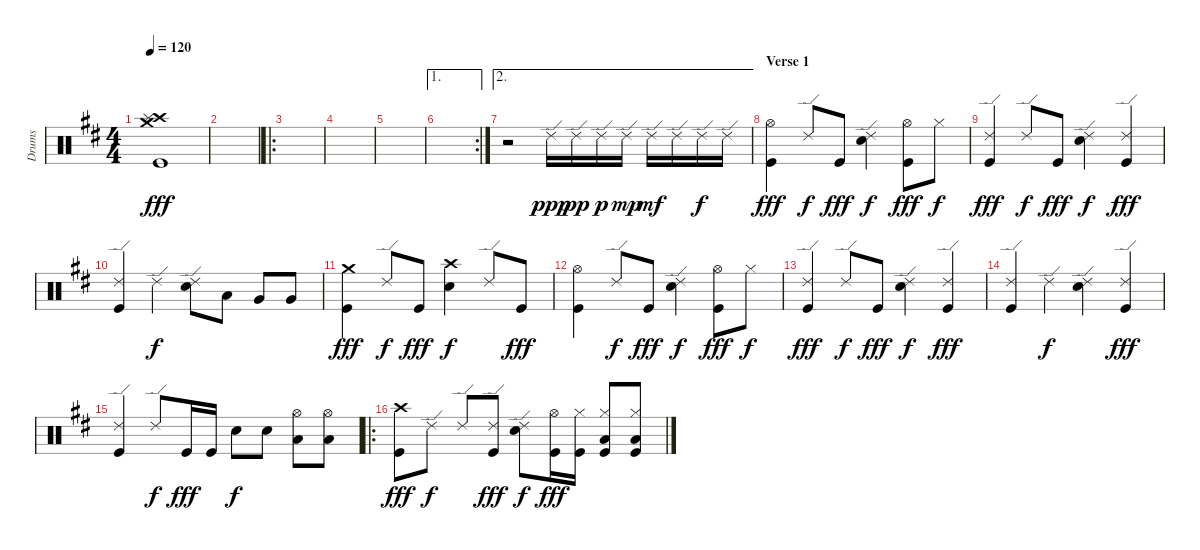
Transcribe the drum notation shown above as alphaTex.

\track ("Drums" "Drums") {instrument percussion}
\staff {score}
\articulation defaults
\ts (4 4)
\tempo 120
\clef neutral
\ks d
("Crash high (hit)" "Crash medium (hit)" "Splash (hit)" "Kick (hit)").1{dy fff} |
|
\ro
|
|
|
\ae 1
\rc 2
|
\ae 2
r.2 "Ride (edge) 2".16{dy ppp} "Ride (edge) 2".16{dy pp} "Ride (edge) 2".16{dy p} "Ride (edge) 2".16{dy mp} "Ride (edge) 2".16{dy mf} "Ride (edge) 2".16 "Ride (edge) 2".16{dy f} "Ride (edge) 2".16 |
\section ("" "Verse 1")
("Hi-Hat (open)" "Kick (hit)").4{dy fff} "Ride (edge) 2".8{dy f} "Kick (hit)".8{dy fff} ("Ride (edge) 2" "Snare (hit) 2").4{dy f} ("Hi-Hat (open)" "Kick (hit)").8{dy fff} "Hi-Hat (closed)".8{dy f} |
("Ride (edge) 2" "Kick (hit)").4{dy fff} "Ride (edge) 2".8{dy f} "Kick (hit)".8{dy fff} ("Ride (edge) 2" "Snare (hit) 2").4{dy f} ("Ride (edge) 2" "Kick (hit)").4{dy fff} |
("Ride (edge) 2" "Kick (hit)").4 "Ride (edge) 2".4{dy f} ("Ride (edge) 2" "Snare (hit) 2").8 "Low Tom (hit)".8 "Very Low Tom (hit)".8 "Very Low Tom (hit)".8 |
("Crash medium (hit)" "Kick (hit)").4{dy fff} "Ride (edge) 2".8{dy f} "Kick (hit)".8{dy fff} ("Crash high (hit)" "Snare (hit) 2").4{dy f} "Ride (edge) 2".8 "Kick (hit)".8{dy fff} |
("Hi-Hat (open)" "Kick (hit)").4 "Ride (edge) 2".8{dy f} "Kick (hit)".8{dy fff} ("Ride (edge) 2" "Snare (hit) 2").4{dy f} ("Hi-Hat (open)" "Kick (hit)").8{dy fff} "Hi-Hat (closed)".8{dy f} |
("Ride (edge) 2" "Kick (hit)").4{dy fff} "Ride (edge) 2".8{dy f} "Kick (hit)".8{dy fff} ("Ride (edge) 2" "Snare (hit) 2").4{dy f} ("Ride (edge) 2" "Kick (hit)").4{dy fff} |
("Ride (edge) 2" "Kick (hit)").4 "Ride (edge) 2".4{dy f} ("Ride (edge) 2" "Snare (hit) 2").4 ("Ride (edge) 2" "Kick (hit)").4{dy fff} |
("Ride (edge) 2" "Kick (hit)").4 "Ride (edge) 2".8{dy f} "Kick (hit)".16{dy fff} "Kick (hit)".16 "Snare (hit) 2".8{dy f} "Snare (hit) 2".8 ("Hi-Hat (open)" "Low Tom (hit)").8 ("Hi-Hat (open)" "Low Tom (hit)").8 |
\ro
("Crash high (hit)" "Kick (hit)").8{dy fff} "Ride (edge) 2".8{dy f} "Ride (edge) 2".8 ("Ride (edge) 2" "Kick (hit)").8{dy fff} ("Ride (edge) 2" "Snare (hit) 2").8{dy f} ("Hi-Hat (open)" "Kick (hit)").16{dy fff} ("Hi-Hat (closed)" "Kick (hit)").16 ("Hi-Hat (closed)" "Low Tom (hit)" "Kick (hit)").8 ("Hi-Hat (closed)" "Low Tom (hit)" "Kick (hit)").8
